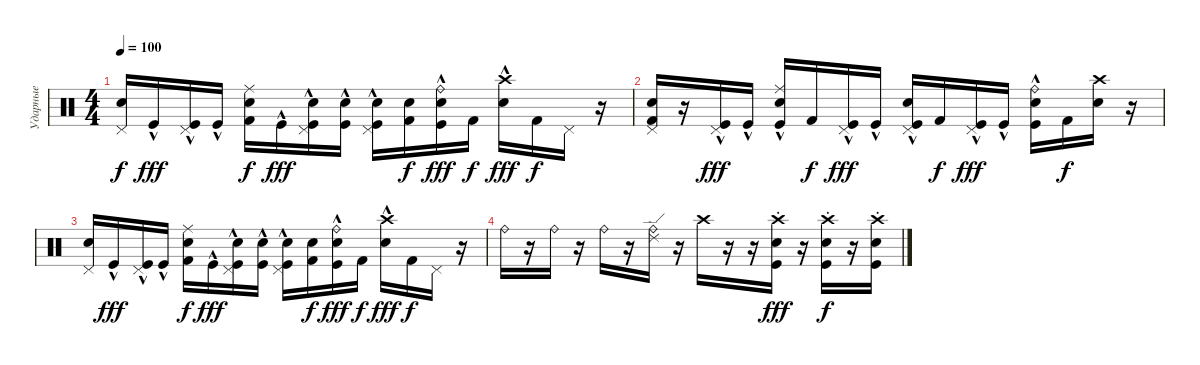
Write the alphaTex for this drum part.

\track ("Ударные" "Ударные") {instrument percussion}
\staff {score}
\articulation defaults
\ts (4 4)
\tempo 100
\clef neutral
\ks c
("Snare (hit) 2" "Pedal Hi-Hat (hit)").16{dy f} "Kick (hit)"{hac}.16{dy fff} ("Kick (hit)"{hac} "Pedal Hi-Hat (hit)").16 "Kick (hit)"{hac}.16 ("Electric Snare (hit)" "Kick (hit) 2" "Ride (middle)").16{dy f} "Kick (hit)"{hac}.16{dy fff} ("Snare (hit) 2" "Kick (hit)"{hac} "Pedal Hi-Hat (hit)").16 ("Snare (hit) 2" "Kick (hit)"{hac}).16 ("Snare (hit) 2" "Kick (hit)"{hac} "Pedal Hi-Hat (hit)").16 ("Snare (hit) 2" "Kick (hit) 2").16{dy f} ("Snare (hit) 2" "Kick (hit)"{hac} "Ride (bell)").16{dy fff} "Kick (hit) 2".16{dy f} ("Electric Snare (hit)"{hac} "Crash high (hit)").16{dy fff} "Kick (hit) 2".16{dy f} "Pedal Hi-Hat (hit)".16 r.16 |
("Snare (hit) 2" "Kick (hit) 2" "Pedal Hi-Hat (hit)").16 r.16 ("Kick (hit)"{hac} "Pedal Hi-Hat (hit)").16{dy fff} "Kick (hit)"{hac}.16 ("Electric Snare (hit)" "Kick (hit)"{hac} "Ride (middle)").16 "Kick (hit) 2".16{dy f} ("Kick (hit)"{hac} "Pedal Hi-Hat (hit)").16{dy fff} "Kick (hit)"{hac}.16 ("Snare (hit) 2" "Kick (hit)"{hac} "Pedal Hi-Hat (hit)").16 "Kick (hit) 2".16{dy f} ("Kick (hit)"{hac} "Pedal Hi-Hat (hit)").16{dy fff} "Kick (hit)"{hac}.16 ("Electric Snare (hit)" "Kick (hit)"{hac} "Ride (bell)").16 "Kick (hit) 2".16{dy f} ("Snare (hit) 2" "Crash high (hit)").16 r.16 |
("Snare (hit) 2" "Pedal Hi-Hat (hit)").16 "Kick (hit)"{hac}.16{dy fff} ("Kick (hit)"{hac} "Pedal Hi-Hat (hit)").16 "Kick (hit)"{hac}.16 ("Electric Snare (hit)" "Kick (hit) 2" "Ride (middle)").16{dy f} "Kick (hit)"{hac}.16{dy fff} ("Snare (hit) 2" "Kick (hit)"{hac} "Pedal Hi-Hat (hit)").16 ("Snare (hit) 2" "Kick (hit)"{hac}).16 ("Snare (hit) 2" "Kick (hit)"{hac} "Pedal Hi-Hat (hit)").16 ("Snare (hit) 2" "Kick (hit) 2").16{dy f} ("Snare (hit) 2" "Kick (hit)"{hac} "Ride (bell)").16{dy fff} "Kick (hit) 2".16{dy f} ("Electric Snare (hit)"{hac} "Crash high (hit)").16{dy fff} "Kick (hit) 2".16{dy f} "Pedal Hi-Hat (hit)".16 r.16 |
"Ride (bell)".16 r.16 "Ride (bell)".16 r.16 "Ride (bell)".16 r.16 ("Ride (bell)" "Ride (edge) 2").16 r.16 "Crash high (hit)".16 r.16 r.16 ("Crash high (hit)"{st} "Snare (hit) 2"{st} "Kick (hit)"{st}).16{dy fff} r.16 ("Crash high (hit)"{st} "Snare (hit) 2"{st} "Kick (hit)"{st}).16{dy f} r.16 ("Crash high (hit)"{st} "Snare (hit) 2"{st} "Kick (hit)"{st}).16
